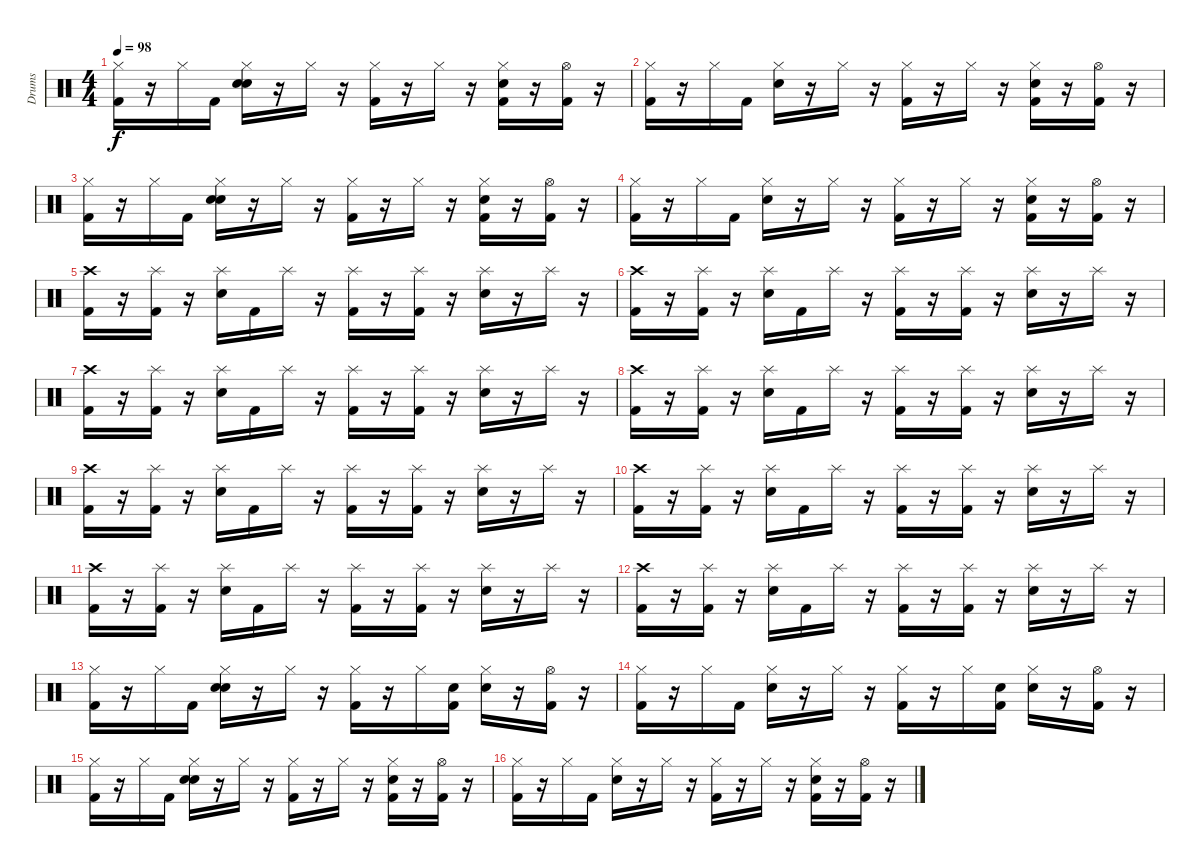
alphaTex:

\track ("Drums" "Drums") {instrument percussion}
\staff {score}
\articulation defaults
\ts (4 4)
\tempo 98
\clef neutral
\ks c
("Kick (hit) 2" "Hi-Hat (closed)").16{dy f} r.16 "Hi-Hat (closed)".16 "Kick (hit) 2".16 ("Snare (hit)" "Snare (hit) 2" "Hi-Hat (closed)").16 r.16 "Hi-Hat (closed)".16 r.16 ("Kick (hit) 2" "Hi-Hat (closed)").16 r.16 "Hi-Hat (closed)".16 r.16 ("Kick (hit) 2" "Snare (hit) 2" "Hi-Hat (closed)").16 r.16 ("Kick (hit) 2" "Hi-Hat (open)").16 r.16 |
("Kick (hit) 2" "Hi-Hat (closed)").16 r.16 "Hi-Hat (closed)".16 "Kick (hit) 2".16 ("Snare (hit) 2" "Hi-Hat (closed)").16 r.16 "Hi-Hat (closed)".16 r.16 ("Kick (hit) 2" "Hi-Hat (closed)").16 r.16 "Hi-Hat (closed)".16 r.16 ("Kick (hit) 2" "Snare (hit) 2" "Hi-Hat (closed)").16 r.16 ("Kick (hit) 2" "Hi-Hat (open)").16 r.16 |
("Kick (hit) 2" "Hi-Hat (closed)").16 r.16 "Hi-Hat (closed)".16 "Kick (hit) 2".16 ("Snare (hit)" "Snare (hit) 2" "Hi-Hat (closed)").16 r.16 "Hi-Hat (closed)".16 r.16 ("Kick (hit) 2" "Hi-Hat (closed)").16 r.16 "Hi-Hat (closed)".16 r.16 ("Kick (hit) 2" "Snare (hit) 2" "Hi-Hat (closed)").16 r.16 ("Kick (hit) 2" "Hi-Hat (open)").16 r.16 |
("Kick (hit) 2" "Hi-Hat (closed)").16 r.16 "Hi-Hat (closed)".16 "Kick (hit) 2".16 ("Snare (hit) 2" "Hi-Hat (closed)").16 r.16 "Hi-Hat (closed)".16 r.16 ("Kick (hit) 2" "Hi-Hat (closed)").16 r.16 "Hi-Hat (closed)".16 r.16 ("Kick (hit) 2" "Snare (hit) 2" "Hi-Hat (closed)").16 r.16 ("Kick (hit) 2" "Hi-Hat (open)").16 r.16 |
("Crash high (hit)" "Kick (hit) 2").16 r.16 ("Splash (hit)" "Kick (hit) 2").16 r.16 ("Splash (hit)" "Electric Snare (hit)").16 "Kick (hit) 2".16 "Splash (hit)".16 r.16 ("Splash (hit)" "Kick (hit) 2").16 r.16 ("Splash (hit)" "Kick (hit) 2").16 r.16 ("Splash (hit)" "Electric Snare (hit)").16 r.16 "Splash (hit)".16 r.16 |
("Crash high (hit)" "Kick (hit) 2").16 r.16 ("Splash (hit)" "Kick (hit) 2").16 r.16 ("Splash (hit)" "Electric Snare (hit)").16 "Kick (hit) 2".16 "Splash (hit)".16 r.16 ("Splash (hit)" "Kick (hit) 2").16 r.16 ("Splash (hit)" "Kick (hit) 2").16 r.16 ("Splash (hit)" "Electric Snare (hit)").16 r.16 "Splash (hit)".16 r.16 |
("Crash high (hit)" "Kick (hit) 2").16 r.16 ("Splash (hit)" "Kick (hit) 2").16 r.16 ("Splash (hit)" "Electric Snare (hit)").16 "Kick (hit) 2".16 "Splash (hit)".16 r.16 ("Splash (hit)" "Kick (hit) 2").16 r.16 ("Splash (hit)" "Kick (hit) 2").16 r.16 ("Splash (hit)" "Electric Snare (hit)").16 r.16 "Splash (hit)".16 r.16 |
("Crash high (hit)" "Kick (hit) 2").16 r.16 ("Splash (hit)" "Kick (hit) 2").16 r.16 ("Splash (hit)" "Electric Snare (hit)").16 "Kick (hit) 2".16 "Splash (hit)".16 r.16 ("Splash (hit)" "Kick (hit) 2").16 r.16 ("Splash (hit)" "Kick (hit) 2").16 r.16 ("Splash (hit)" "Electric Snare (hit)").16 r.16 "Splash (hit)".16 r.16 |
("Crash high (hit)" "Kick (hit) 2").16 r.16 ("Splash (hit)" "Kick (hit) 2").16 r.16 ("Splash (hit)" "Electric Snare (hit)").16 "Kick (hit) 2".16 "Splash (hit)".16 r.16 ("Splash (hit)" "Kick (hit) 2").16 r.16 ("Splash (hit)" "Kick (hit) 2").16 r.16 ("Splash (hit)" "Electric Snare (hit)").16 r.16 "Splash (hit)".16 r.16 |
("Crash high (hit)" "Kick (hit) 2").16 r.16 ("Splash (hit)" "Kick (hit) 2").16 r.16 ("Splash (hit)" "Electric Snare (hit)").16 "Kick (hit) 2".16 "Splash (hit)".16 r.16 ("Splash (hit)" "Kick (hit) 2").16 r.16 ("Splash (hit)" "Kick (hit) 2").16 r.16 ("Splash (hit)" "Electric Snare (hit)").16 r.16 "Splash (hit)".16 r.16 |
("Crash high (hit)" "Kick (hit) 2").16 r.16 ("Splash (hit)" "Kick (hit) 2").16 r.16 ("Splash (hit)" "Electric Snare (hit)").16 "Kick (hit) 2".16 "Splash (hit)".16 r.16 ("Splash (hit)" "Kick (hit) 2").16 r.16 ("Splash (hit)" "Kick (hit) 2").16 r.16 ("Splash (hit)" "Electric Snare (hit)").16 r.16 "Splash (hit)".16 r.16 |
("Crash high (hit)" "Kick (hit) 2").16 r.16 ("Splash (hit)" "Kick (hit) 2").16 r.16 ("Splash (hit)" "Electric Snare (hit)").16 "Kick (hit) 2".16 "Splash (hit)".16 r.16 ("Splash (hit)" "Kick (hit) 2").16 r.16 ("Splash (hit)" "Kick (hit) 2").16 r.16 ("Splash (hit)" "Electric Snare (hit)").16 r.16 "Splash (hit)".16 r.16 |
("Kick (hit) 2" "Hi-Hat (closed)").16 r.16 "Hi-Hat (closed)".16 "Kick (hit) 2".16 ("Snare (hit)" "Snare (hit) 2" "Hi-Hat (closed)").16 r.16 "Hi-Hat (closed)".16 r.16 ("Kick (hit) 2" "Hi-Hat (closed)").16 r.16 "Hi-Hat (closed)".16 ("Snare (hit)" "Kick (hit) 2").16 ("Snare (hit) 2" "Hi-Hat (closed)").16 r.16 ("Kick (hit) 2" "Hi-Hat (open)").16 r.16 |
("Kick (hit) 2" "Hi-Hat (closed)").16 r.16 "Hi-Hat (closed)".16 "Kick (hit) 2".16 ("Snare (hit) 2" "Hi-Hat (closed)").16 r.16 "Hi-Hat (closed)".16 r.16 ("Kick (hit) 2" "Hi-Hat (closed)").16 r.16 "Hi-Hat (closed)".16 ("Snare (hit)" "Kick (hit) 2").16 ("Snare (hit) 2" "Hi-Hat (closed)").16 r.16 ("Kick (hit) 2" "Hi-Hat (open)").16 r.16 |
("Kick (hit) 2" "Hi-Hat (closed)").16 r.16 "Hi-Hat (closed)".16 "Kick (hit) 2".16 ("Snare (hit)" "Snare (hit) 2" "Hi-Hat (closed)").16 r.16 "Hi-Hat (closed)".16 r.16 ("Kick (hit) 2" "Hi-Hat (closed)").16 r.16 "Hi-Hat (closed)".16 r.16 ("Kick (hit) 2" "Snare (hit) 2" "Hi-Hat (closed)").16 r.16 ("Kick (hit) 2" "Hi-Hat (open)").16 r.16 |
("Kick (hit) 2" "Hi-Hat (closed)").16 r.16 "Hi-Hat (closed)".16 "Kick (hit) 2".16 ("Snare (hit) 2" "Hi-Hat (closed)").16 r.16 "Hi-Hat (closed)".16 r.16 ("Kick (hit) 2" "Hi-Hat (closed)").16 r.16 "Hi-Hat (closed)".16 r.16 ("Kick (hit) 2" "Snare (hit) 2" "Hi-Hat (closed)").16 r.16 ("Kick (hit) 2" "Hi-Hat (open)").16 r.16
